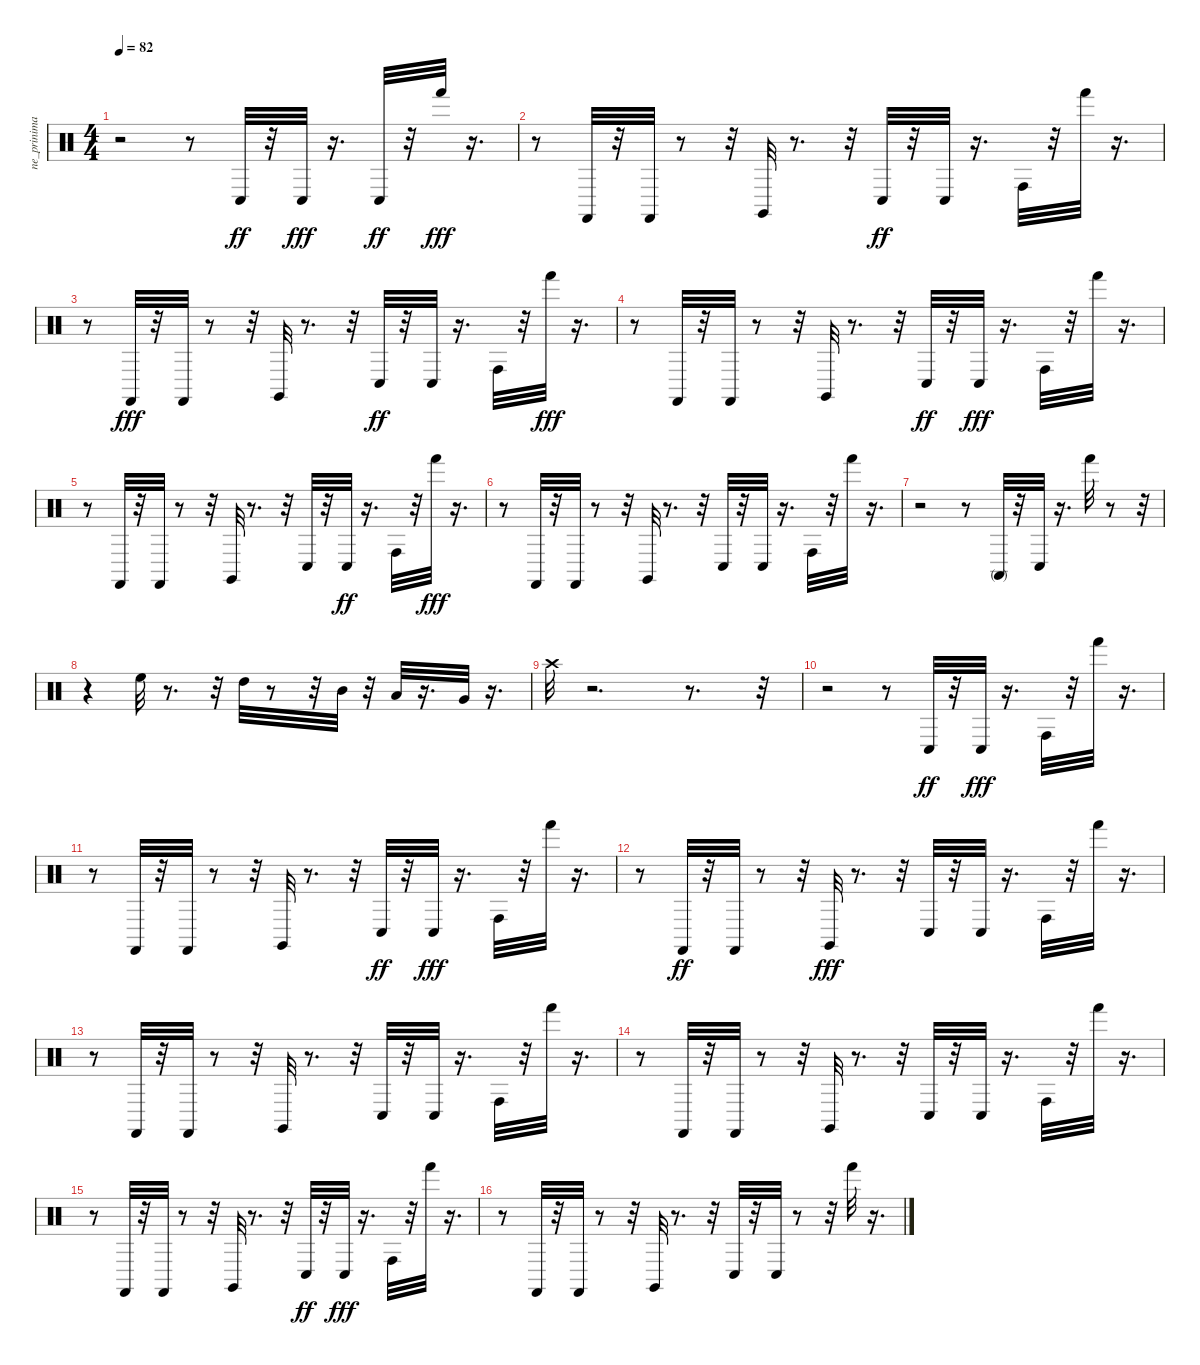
\track ("ne_prinimai" "ne_prinima") {instrument percussion}
\staff {score}
\articulation defaults
\ts (4 4)
\tempo 82
\clef neutral
\ks c
r.2{dy ff} r.8 "Conga low (hit)".32 r.32 "Conga low (hit)".32{dy fff} r.16{d} "Conga low (hit)".32{dy ff} r.32 "Hand (hit)".32{dy fff} r.16{d} |
r.8 "Castanets (hit)".32 r.32 "Castanets (hit)".32 r.8 r.32 "Claves (hit)".32 r.8{d} r.32 "Conga low (hit)".32{dy ff} r.32 "Conga low (hit)".32 r.16{d} "Conga high (hit)".32 r.32 "Hand (hit)".32 r.16{d} |
r.8 "Castanets (hit)".32{dy fff} r.32 "Castanets (hit)".32 r.8 r.32 "Claves (hit)".32 r.8{d} r.32 "Conga low (hit)".32{dy ff} r.32 "Conga low (hit)".32 r.16{d} "Conga high (hit)".32 r.32 "Hand (hit)".32{dy fff} r.16{d} |
r.8 "Castanets (hit)".32 r.32 "Castanets (hit)".32 r.8 r.32 "Claves (hit)".32 r.8{d} r.32 "Conga low (hit)".32{dy ff} r.32 "Conga low (hit)".32{dy fff} r.16{d} "Conga high (hit)".32 r.32 "Hand (hit)".32 r.16{d} |
r.8 "Castanets (hit)".32 r.32 "Castanets (hit)".32 r.8 r.32 "Claves (hit)".32 r.8{d} r.32 "Conga low (hit)".32 r.32 "Conga low (hit)".32{dy ff} r.16{d} "Conga high (hit)".32 r.32 "Hand (hit)".32{dy fff} r.16{d} |
r.8 "Castanets (hit)".32 r.32 "Castanets (hit)".32 r.8 r.32 "Claves (hit)".32 r.8{d} r.32 "Conga low (hit)".32 r.32 "Conga low (hit)".32 r.16{d} "Conga high (hit)".32 r.32 "Hand (hit)".32 r.16{d} |
r.2 r.8 "Conga high (mute)".32 r.32 "Conga low (hit)".32 r.16{d} "Hand (hit)".32 r.8 r.32 |
r.4 "High Floor Tom (hit)".32 r.8{d} r.32 "High Tom (hit)".32 r.8 r.32 "Mid Tom (hit)".32 r.32 "Low Tom (hit)".32 r.16{d} "Very Low Tom (hit)".32 r.16{d} |
"Crash high (hit)".32 r.2{d} r.8{d} r.32 |
r.2 r.8 "Conga low (hit)".32{dy ff} r.32 "Conga low (hit)".32{dy fff} r.16{d} "Conga high (hit)".32 r.32 "Hand (hit)".32 r.16{d} |
r.8 "Castanets (hit)".32 r.32 "Castanets (hit)".32 r.8 r.32 "Claves (hit)".32 r.8{d} r.32 "Conga low (hit)".32{dy ff} r.32 "Conga low (hit)".32{dy fff} r.16{d} "Conga high (hit)".32 r.32 "Hand (hit)".32 r.16{d} |
r.8 "Castanets (hit)".32{dy ff} r.32 "Castanets (hit)".32 r.8 r.32 "Claves (hit)".32{dy fff} r.8{d} r.32 "Conga low (hit)".32 r.32 "Conga low (hit)".32 r.16{d} "Conga high (hit)".32 r.32 "Hand (hit)".32 r.16{d} |
r.8 "Castanets (hit)".32 r.32 "Castanets (hit)".32 r.8 r.32 "Claves (hit)".32 r.8{d} r.32 "Conga low (hit)".32 r.32 "Conga low (hit)".32 r.16{d} "Conga high (hit)".32 r.32 "Hand (hit)".32 r.16{d} |
r.8 "Castanets (hit)".32 r.32 "Castanets (hit)".32 r.8 r.32 "Claves (hit)".32 r.8{d} r.32 "Conga low (hit)".32 r.32 "Conga low (hit)".32 r.16{d} "Conga high (hit)".32 r.32 "Hand (hit)".32 r.16{d} |
r.8 "Castanets (hit)".32 r.32 "Castanets (hit)".32 r.8 r.32 "Claves (hit)".32 r.8{d} r.32 "Conga low (hit)".32{dy ff} r.32 "Conga low (hit)".32{dy fff} r.16{d} "Conga high (hit)".32 r.32 "Hand (hit)".32 r.16{d} |
r.8 "Castanets (hit)".32 r.32 "Castanets (hit)".32 r.8 r.32 "Claves (hit)".32 r.8{d} r.32 "Conga low (hit)".32 r.32 "Conga low (hit)".32 r.8 r.32 "Hand (hit)".32 r.16{d}
